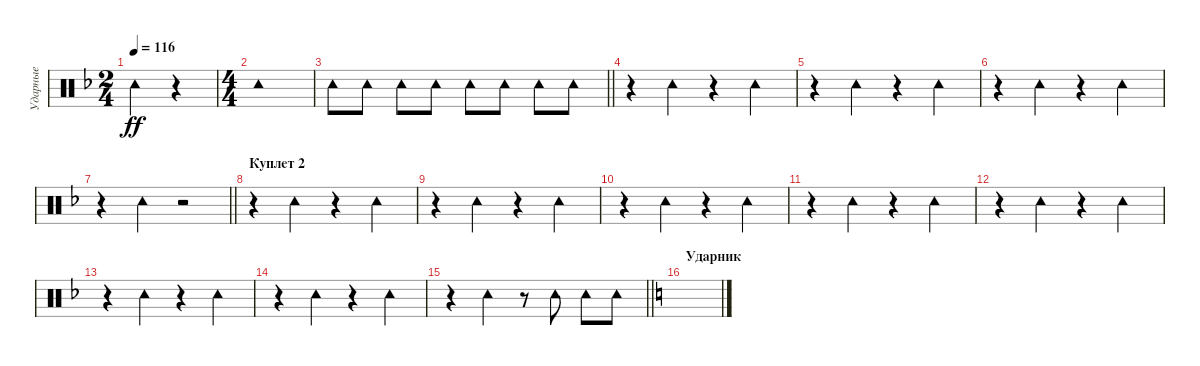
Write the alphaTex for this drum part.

\track ("Ударные" "Ударные") {instrument percussion}
\staff {score}
\articulation defaults
\ts (2 4)
\tempo 116
\clef neutral
\ks dminor "Tambourine (hit)".4{dy ff}
r.4 |
\ts (4 4)
"Tambourine (hit)".1 |
\barLineRight lightlight "Tambourine (hit)".8 "Tambourine (hit)".8 "Tambourine (hit)".8 "Tambourine (hit)".8 "Tambourine (hit)".8 "Tambourine (hit)".8 "Tambourine (hit)".8 "Tambourine (hit)".8
|
r.4 "Tambourine (hit)".4 r.4 "Tambourine (hit)".4 |
r.4 "Tambourine (hit)".4 r.4 "Tambourine (hit)".4 |
r.4 "Tambourine (hit)".4 r.4 "Tambourine (hit)".4 |
\barLineRight lightlight
r.4 "Tambourine (hit)".4 r.2 |
\section ("" "Куплет 2")
r.4 "Tambourine (hit)".4 r.4 "Tambourine (hit)".4 |
r.4 "Tambourine (hit)".4 r.4 "Tambourine (hit)".4 |
r.4 "Tambourine (hit)".4 r.4 "Tambourine (hit)".4 |
r.4 "Tambourine (hit)".4 r.4 "Tambourine (hit)".4 |
r.4 "Tambourine (hit)".4 r.4 "Tambourine (hit)".4 |
r.4 "Tambourine (hit)".4 r.4 "Tambourine (hit)".4 |
r.4 "Tambourine (hit)".4 r.4 "Tambourine (hit)".4 |
\barLineRight lightlight
r.4 "Tambourine (hit)".4 r.8 "Tambourine (hit)".8 "Tambourine (hit)".8 "Tambourine (hit)".8 |
\section ("" "Ударник")
\ks c
